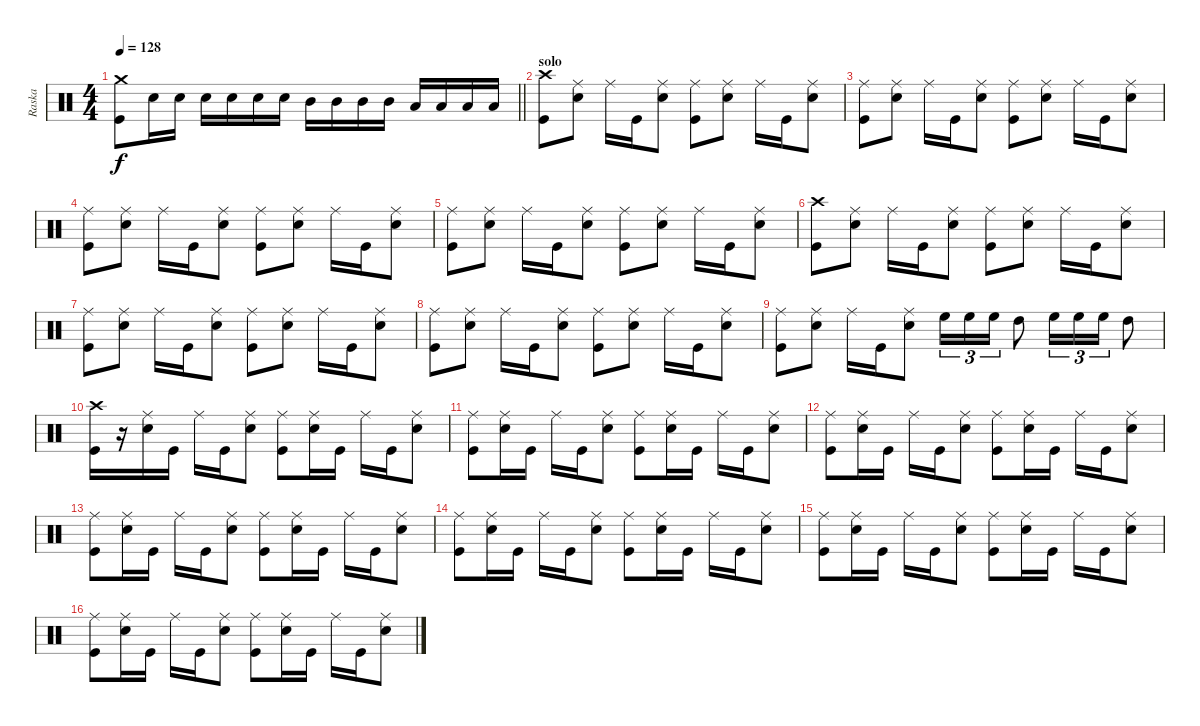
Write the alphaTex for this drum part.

\track ("Raska" "Raska") {instrument percussion}
\staff {score}
\articulation defaults
\ts (4 4)
\tempo 128
\clef neutral
\barLineRight lightlight
\ks c
("Crash medium (hit)" "Kick (hit)").8{dy f} "Electric Snare (hit)".16 "Electric Snare (hit)".16 "Electric Snare (hit)".16 "Electric Snare (hit)".16 "Electric Snare (hit)".16 "Electric Snare (hit)".16 "Mid Tom (hit)".16 "Mid Tom (hit)".16 "Mid Tom (hit)".16 "Mid Tom (hit)".16 "Low Tom (hit)".16 "Low Tom (hit)".16 "Low Tom (hit)".16 "Low Tom (hit)".16 |
\section ("" "solo")
("Crash high (hit)" "Kick (hit)").8 ("Ride (middle)" "Electric Snare (hit)").8 "Ride (middle)".16 "Kick (hit)".16 ("Ride (middle)" "Electric Snare (hit)").8 ("Ride (middle)" "Kick (hit)").8 ("Ride (middle)" "Electric Snare (hit)").8 "Ride (middle)".16 "Kick (hit)".16 ("Ride (middle)" "Electric Snare (hit)").8 |
("Ride (middle)" "Kick (hit)").8 ("Ride (middle)" "Electric Snare (hit)").8 "Ride (middle)".16 "Kick (hit)".16 ("Ride (middle)" "Electric Snare (hit)").8 ("Ride (middle)" "Kick (hit)").8 ("Ride (middle)" "Electric Snare (hit)").8 "Ride (middle)".16 "Kick (hit)".16 ("Ride (middle)" "Electric Snare (hit)").8 |
("Ride (middle)" "Kick (hit)").8 ("Ride (middle)" "Electric Snare (hit)").8 "Ride (middle)".16 "Kick (hit)".16 ("Ride (middle)" "Electric Snare (hit)").8 ("Ride (middle)" "Kick (hit)").8 ("Ride (middle)" "Electric Snare (hit)").8 "Ride (middle)".16 "Kick (hit)".16 ("Ride (middle)" "Electric Snare (hit)").8 |
("Ride (middle)" "Kick (hit)").8 ("Ride (middle)" "Electric Snare (hit)").8 "Ride (middle)".16 "Kick (hit)".16 ("Ride (middle)" "Electric Snare (hit)").8 ("Ride (middle)" "Kick (hit)").8 ("Ride (middle)" "Electric Snare (hit)").8 "Ride (middle)".16 "Kick (hit)".16 ("Ride (middle)" "Electric Snare (hit)").8 |
("Crash high (hit)" "Kick (hit)").8 ("Ride (middle)" "Electric Snare (hit)").8 "Ride (middle)".16 "Kick (hit)".16 ("Ride (middle)" "Electric Snare (hit)").8 ("Ride (middle)" "Kick (hit)").8 ("Ride (middle)" "Electric Snare (hit)").8 "Ride (middle)".16 "Kick (hit)".16 ("Ride (middle)" "Electric Snare (hit)").8 |
("Ride (middle)" "Kick (hit)").8 ("Ride (middle)" "Electric Snare (hit)").8 "Ride (middle)".16 "Kick (hit)".16 ("Ride (middle)" "Electric Snare (hit)").8 ("Ride (middle)" "Kick (hit)").8 ("Ride (middle)" "Electric Snare (hit)").8 "Ride (middle)".16 "Kick (hit)".16 ("Ride (middle)" "Electric Snare (hit)").8 |
("Ride (middle)" "Kick (hit)").8 ("Ride (middle)" "Electric Snare (hit)").8 "Ride (middle)".16 "Kick (hit)".16 ("Ride (middle)" "Electric Snare (hit)").8 ("Ride (middle)" "Kick (hit)").8 ("Ride (middle)" "Electric Snare (hit)").8 "Ride (middle)".16 "Kick (hit)".16 ("Ride (middle)" "Electric Snare (hit)").8 |
("Ride (middle)" "Kick (hit)").8 ("Ride (middle)" "Electric Snare (hit)").8 "Ride (middle)".16 "Kick (hit)".16 ("Ride (middle)" "Electric Snare (hit)").8 "High Floor Tom (hit)".16{tu (3 2)} "High Floor Tom (hit)".16{tu (3 2)} "High Floor Tom (hit)".16{tu (3 2)} "High Tom (hit)".8 "High Floor Tom (hit)".16{tu (3 2)} "High Floor Tom (hit)".16{tu (3 2)} "High Floor Tom (hit)".16{tu (3 2)} "High Tom (hit)".8 |
("Crash high (hit)" "Kick (hit)").16 r.16 ("Ride (middle)" "Electric Snare (hit)").16 "Kick (hit)".16 "Ride (middle)".16 "Kick (hit)".16 ("Ride (middle)" "Electric Snare (hit)").8 ("Ride (middle)" "Kick (hit)").8 ("Ride (middle)" "Electric Snare (hit)").16 "Kick (hit)".16 "Ride (middle)".16 "Kick (hit)".16 ("Ride (middle)" "Electric Snare (hit)").8 |
("Ride (middle)" "Kick (hit)").8 ("Ride (middle)" "Electric Snare (hit)").16 "Kick (hit)".16 "Ride (middle)".16 "Kick (hit)".16 ("Ride (middle)" "Electric Snare (hit)").8 ("Ride (middle)" "Kick (hit)").8 ("Ride (middle)" "Electric Snare (hit)").16 "Kick (hit)".16 "Ride (middle)".16 "Kick (hit)".16 ("Ride (middle)" "Electric Snare (hit)").8 |
("Ride (middle)" "Kick (hit)").8 ("Ride (middle)" "Electric Snare (hit)").16 "Kick (hit)".16 "Ride (middle)".16 "Kick (hit)".16 ("Ride (middle)" "Electric Snare (hit)").8 ("Ride (middle)" "Kick (hit)").8 ("Ride (middle)" "Electric Snare (hit)").16 "Kick (hit)".16 "Ride (middle)".16 "Kick (hit)".16 ("Ride (middle)" "Electric Snare (hit)").8 |
("Ride (middle)" "Kick (hit)").8 ("Ride (middle)" "Electric Snare (hit)").16 "Kick (hit)".16 "Ride (middle)".16 "Kick (hit)".16 ("Ride (middle)" "Electric Snare (hit)").8 ("Ride (middle)" "Kick (hit)").8 ("Ride (middle)" "Electric Snare (hit)").16 "Kick (hit)".16 "Ride (middle)".16 "Kick (hit)".16 ("Ride (middle)" "Electric Snare (hit)").8 |
("Ride (middle)" "Kick (hit)").8 ("Ride (middle)" "Electric Snare (hit)").16 "Kick (hit)".16 "Ride (middle)".16 "Kick (hit)".16 ("Ride (middle)" "Electric Snare (hit)").8 ("Ride (middle)" "Kick (hit)").8 ("Ride (middle)" "Electric Snare (hit)").16 "Kick (hit)".16 "Ride (middle)".16 "Kick (hit)".16 ("Ride (middle)" "Electric Snare (hit)").8 |
("Ride (middle)" "Kick (hit)").8 ("Ride (middle)" "Electric Snare (hit)").16 "Kick (hit)".16 "Ride (middle)".16 "Kick (hit)".16 ("Ride (middle)" "Electric Snare (hit)").8 ("Ride (middle)" "Kick (hit)").8 ("Ride (middle)" "Electric Snare (hit)").16 "Kick (hit)".16 "Ride (middle)".16 "Kick (hit)".16 ("Ride (middle)" "Electric Snare (hit)").8 |
("Ride (middle)" "Kick (hit)").8 ("Ride (middle)" "Electric Snare (hit)").16 "Kick (hit)".16 "Ride (middle)".16 "Kick (hit)".16 ("Ride (middle)" "Electric Snare (hit)").8 ("Ride (middle)" "Kick (hit)").8 ("Ride (middle)" "Electric Snare (hit)").16 "Kick (hit)".16 "Ride (middle)".16 "Kick (hit)".16 ("Ride (middle)" "Electric Snare (hit)").8
